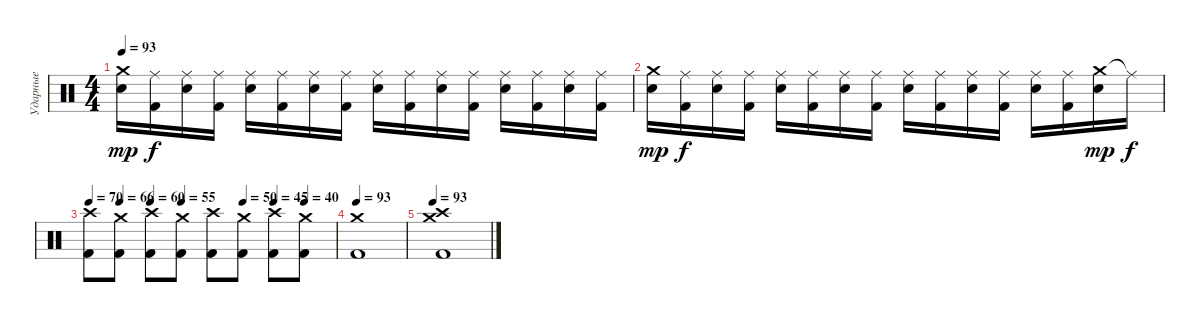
\track ("Ударные" "Ударные") {instrument percussion}
\staff {score}
\articulation defaults
\ts (4 4)
\tempo 93
\clef neutral
\ks c
("Crash medium (hit)" "Electric Snare (hit)").16{dy mp} ("Ride (middle)" "Kick (hit) 2").16{dy f} ("Ride (middle)" "Electric Snare (hit)").16 ("Ride (middle)" "Kick (hit) 2").16 ("Ride (middle)" "Electric Snare (hit)").16 ("Ride (middle)" "Kick (hit) 2").16 ("Ride (middle)" "Electric Snare (hit)").16 ("Ride (middle)" "Kick (hit) 2").16 ("Ride (middle)" "Electric Snare (hit)").16 ("Ride (middle)" "Kick (hit) 2").16 ("Ride (middle)" "Electric Snare (hit)").16 ("Ride (middle)" "Kick (hit) 2").16 ("Ride (middle)" "Electric Snare (hit)").16 ("Ride (middle)" "Kick (hit) 2").16 ("Ride (middle)" "Electric Snare (hit)").16 ("Ride (middle)" "Kick (hit) 2").16 |
("Crash medium (hit)" "Electric Snare (hit)").16{dy mp} ("Ride (middle)" "Kick (hit) 2").16{dy f} ("Ride (middle)" "Electric Snare (hit)").16 ("Ride (middle)" "Kick (hit) 2").16 ("Ride (middle)" "Electric Snare (hit)").16 ("Ride (middle)" "Kick (hit) 2").16 ("Ride (middle)" "Electric Snare (hit)").16 ("Ride (middle)" "Kick (hit) 2").16 ("Ride (middle)" "Electric Snare (hit)").16 ("Ride (middle)" "Kick (hit) 2").16 ("Ride (middle)" "Electric Snare (hit)").16 ("Ride (middle)" "Kick (hit) 2").16 ("Ride (middle)" "Electric Snare (hit)").16 ("Ride (middle)" "Kick (hit) 2").16 ("Crash medium (hit)" "Electric Snare (hit)").16{dy mp} "Ride (middle)"{t}.16{dy f} |
\tempo 70
\tempo (66 0.125)
\tempo (60 0.25)
\tempo (55 0.375)
\tempo (50 0.625)
\tempo (45 0.75)
\tempo (40 0.875)
("Crash high (hit)" "Kick (hit) 2").8 ("Crash medium (hit)" "Kick (hit) 2").8 ("Crash high (hit)" "Kick (hit) 2").8 ("Crash medium (hit)" "Kick (hit) 2").8 ("Crash high (hit)" "Kick (hit) 2").8 ("Crash medium (hit)" "Kick (hit) 2").8 ("Crash high (hit)" "Kick (hit) 2").8 ("Crash medium (hit)" "Kick (hit) 2").8 |
\tempo 93
("Crash medium (hit)" "Kick (hit) 2").1 |
\tempo 93
("Crash high (hit)" "Crash medium (hit)" "Kick (hit) 2").1
